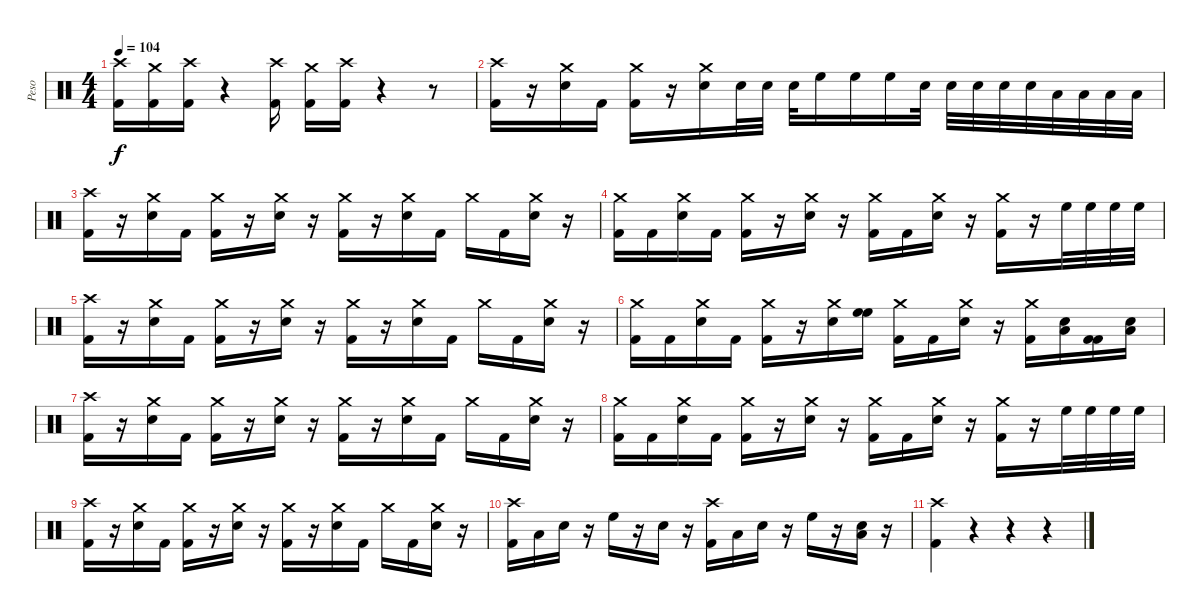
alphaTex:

\track ("Peso" "Peso") {instrument percussion}
\staff {score}
\articulation defaults
\ts (4 4)
\tempo 104
\clef neutral
\ks c
("Crash high (hit)" "Kick (hit) 2").16{dy f} ("Crash medium (hit)" "Kick (hit) 2").16 ("Crash high (hit)" "Kick (hit) 2").16 r.4 ("Crash high (hit)" "Kick (hit) 2").16 ("Crash medium (hit)" "Kick (hit) 2").16 ("Crash high (hit)" "Kick (hit) 2").16 r.4 r.8 |
("Crash high (hit)" "Kick (hit) 2").16 r.16 ("Crash medium (hit)" "Snare (hit) 2").16 "Kick (hit) 2".16 ("Crash medium (hit)" "Kick (hit) 2").16 r.16 ("Crash medium (hit)" "Snare (hit) 2").16 "Snare (hit) 2".32 "Snare (hit) 2".32 "Snare (hit) 2".32 "High Floor Tom (hit)".16 "High Floor Tom (hit)".16 "High Floor Tom (hit)".16 "Snare (hit) 2".32 "Snare (hit) 2".32 "Snare (hit) 2".32 "Snare (hit) 2".32 "Snare (hit) 2".32 "Low Floor Tom (hit)".32 "Low Floor Tom (hit)".32 "Low Floor Tom (hit)".32 "Low Floor Tom (hit)".32 |
("Crash high (hit)" "Kick (hit) 2").16 r.16 ("Crash medium (hit)" "Snare (hit) 2").16 "Kick (hit) 2".16 ("Crash medium (hit)" "Kick (hit) 2").16 r.16 ("Crash medium (hit)" "Snare (hit) 2").16 r.16 ("Crash medium (hit)" "Kick (hit) 2").16 r.16 ("Crash medium (hit)" "Snare (hit) 2").16 "Kick (hit) 2".16 "Crash medium (hit)".16 "Kick (hit) 2".16 ("Crash medium (hit)" "Snare (hit) 2").16 r.16 |
("Crash medium (hit)" "Kick (hit) 2").16 "Kick (hit) 2".16 ("Crash medium (hit)" "Snare (hit) 2").16 "Kick (hit) 2".16 ("Crash medium (hit)" "Kick (hit) 2").16 r.16 ("Crash medium (hit)" "Snare (hit) 2").16 r.16 ("Crash medium (hit)" "Kick (hit) 2").16 "Kick (hit) 2".16 ("Crash medium (hit)" "Snare (hit) 2").16 r.16 ("Crash medium (hit)" "Kick (hit) 2").16 r.16 "High Floor Tom (hit)".32 "High Floor Tom (hit)".32 "High Floor Tom (hit)".32 "High Floor Tom (hit)".32 |
("Crash high (hit)" "Kick (hit) 2").16 r.16 ("Crash medium (hit)" "Snare (hit) 2").16 "Kick (hit) 2".16 ("Crash medium (hit)" "Kick (hit) 2").16 r.16 ("Crash medium (hit)" "Snare (hit) 2").16 r.16 ("Crash medium (hit)" "Kick (hit) 2").16 r.16 ("Crash medium (hit)" "Snare (hit) 2").16 "Kick (hit) 2".16 "Crash medium (hit)".16 "Kick (hit) 2".16 ("Crash medium (hit)" "Snare (hit) 2").16 r.16 |
("Crash medium (hit)" "Kick (hit) 2").16 "Kick (hit) 2".16 ("Crash medium (hit)" "Snare (hit) 2").16 "Kick (hit) 2".16 ("Crash medium (hit)" "Kick (hit) 2").16 r.16 ("Crash medium (hit)" "Snare (hit) 2").16 ("High Floor Tom (hit)" "High Floor Tom (hit)").16 ("Crash medium (hit)" "Kick (hit) 2").16 "Kick (hit) 2".16 ("Crash medium (hit)" "Snare (hit) 2").16 r.16 ("Crash medium (hit)" "Kick (hit) 2").16 ("Low Floor Tom (hit)" "Snare (hit) 2").16 ("Kick (hit) 2" "Kick (hit) 2").16 ("Low Floor Tom (hit)" "Snare (hit) 2").16 |
("Crash high (hit)" "Kick (hit) 2").16 r.16 ("Crash medium (hit)" "Snare (hit) 2").16 "Kick (hit) 2".16 ("Crash medium (hit)" "Kick (hit) 2").16 r.16 ("Crash medium (hit)" "Snare (hit) 2").16 r.16 ("Crash medium (hit)" "Kick (hit) 2").16 r.16 ("Crash medium (hit)" "Snare (hit) 2").16 "Kick (hit) 2".16 "Crash medium (hit)".16 "Kick (hit) 2".16 ("Crash medium (hit)" "Snare (hit) 2").16 r.16 |
("Crash medium (hit)" "Kick (hit) 2").16 "Kick (hit) 2".16 ("Crash medium (hit)" "Snare (hit) 2").16 "Kick (hit) 2".16 ("Crash medium (hit)" "Kick (hit) 2").16 r.16 ("Crash medium (hit)" "Snare (hit) 2").16 r.16 ("Crash medium (hit)" "Kick (hit) 2").16 "Kick (hit) 2".16 ("Crash medium (hit)" "Snare (hit) 2").16 r.16 ("Crash medium (hit)" "Kick (hit) 2").16 r.16 "High Floor Tom (hit)".32 "High Floor Tom (hit)".32 "High Floor Tom (hit)".32 "High Floor Tom (hit)".32 |
("Crash high (hit)" "Kick (hit) 2").16 r.16 ("Crash medium (hit)" "Snare (hit) 2").16 "Kick (hit) 2".16 ("Crash medium (hit)" "Kick (hit) 2").16 r.16 ("Crash medium (hit)" "Snare (hit) 2").16 r.16 ("Crash medium (hit)" "Kick (hit) 2").16 r.16 ("Crash medium (hit)" "Snare (hit) 2").16 "Kick (hit) 2".16 "Crash medium (hit)".16 "Kick (hit) 2".16 ("Crash medium (hit)" "Snare (hit) 2").16 r.16 |
("Crash high (hit)" "Kick (hit) 2").16 "Low Floor Tom (hit)".16 "Snare (hit) 2".16 r.16 "High Floor Tom (hit)".16 r.16 "Snare (hit) 2".16 r.16 ("Crash high (hit)" "Kick (hit) 2").16 "Low Floor Tom (hit)".16 "Snare (hit) 2".16 r.16 "High Floor Tom (hit)".16 r.16 ("Low Floor Tom (hit)" "Snare (hit) 2").16 r.16 |
("Crash high (hit)" "Kick (hit) 2").4 r.4 r.4 r.4
